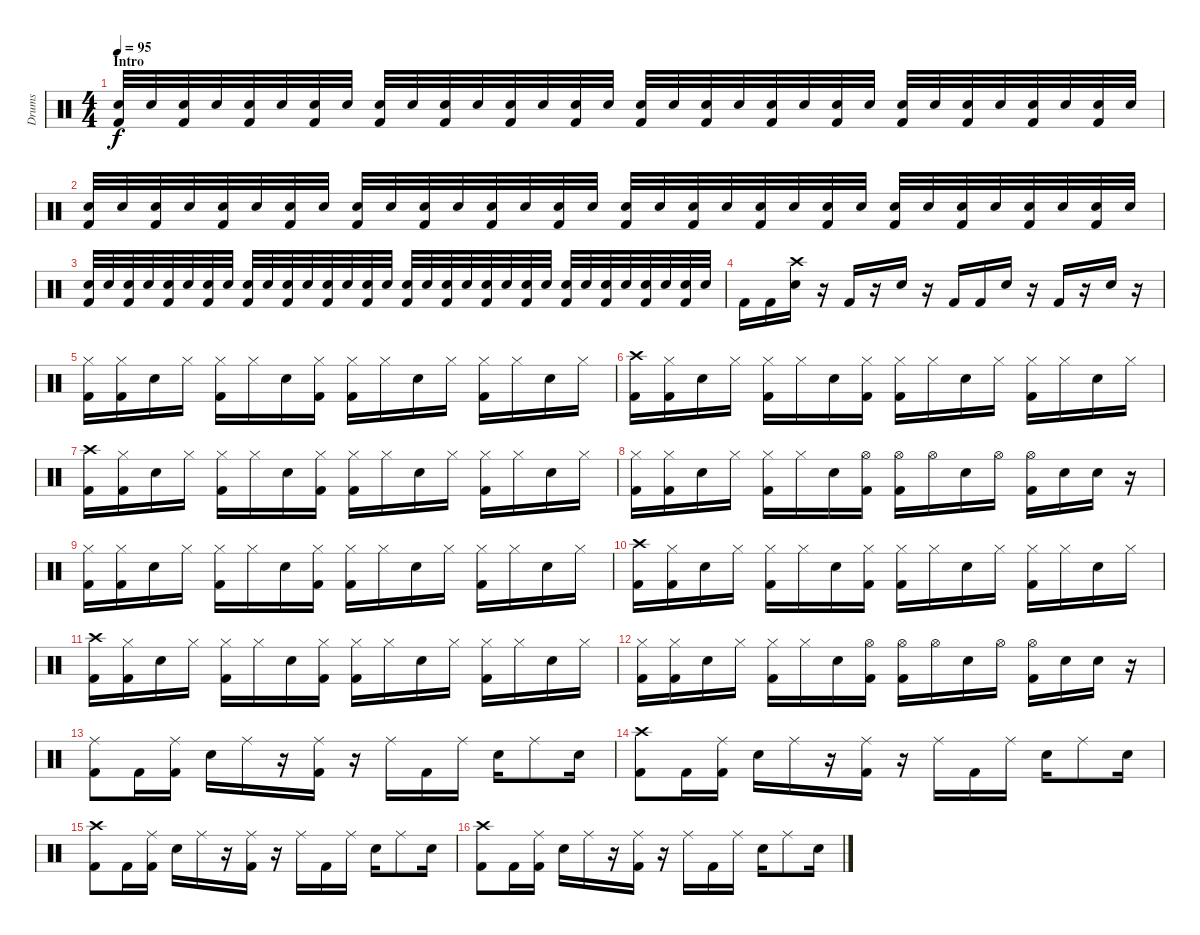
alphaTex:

\track ("Drums" "Drums") {instrument percussion}
\staff {score}
\articulation defaults
\ts (4 4)
\section ("" "Intro")
\tempo 95
\clef neutral
\ks c
("Snare (hit) 2" "Kick (hit) 2").32{dy f} "Snare (hit) 2".32 ("Snare (hit) 2" "Kick (hit) 2").32 "Snare (hit) 2".32 ("Snare (hit) 2" "Kick (hit) 2").32 "Snare (hit) 2".32 ("Snare (hit) 2" "Kick (hit) 2").32 "Snare (hit) 2".32 ("Snare (hit) 2" "Kick (hit) 2").32 "Snare (hit) 2".32 ("Snare (hit) 2" "Kick (hit) 2").32 "Snare (hit) 2".32 ("Snare (hit) 2" "Kick (hit) 2").32 "Snare (hit) 2".32 ("Snare (hit) 2" "Kick (hit) 2").32 "Snare (hit) 2".32 ("Snare (hit) 2" "Kick (hit) 2").32 "Snare (hit) 2".32 ("Snare (hit) 2" "Kick (hit) 2").32 "Snare (hit) 2".32 ("Snare (hit) 2" "Kick (hit) 2").32 "Snare (hit) 2".32 ("Snare (hit) 2" "Kick (hit) 2").32 "Snare (hit) 2".32 ("Snare (hit) 2" "Kick (hit) 2").32 "Snare (hit) 2".32 ("Snare (hit) 2" "Kick (hit) 2").32 "Snare (hit) 2".32 ("Snare (hit) 2" "Kick (hit) 2").32 "Snare (hit) 2".32 ("Snare (hit) 2" "Kick (hit) 2").32 "Snare (hit) 2".32 |
("Snare (hit) 2" "Kick (hit) 2").32 "Snare (hit) 2".32 ("Snare (hit) 2" "Kick (hit) 2").32 "Snare (hit) 2".32 ("Snare (hit) 2" "Kick (hit) 2").32 "Snare (hit) 2".32 ("Snare (hit) 2" "Kick (hit) 2").32 "Snare (hit) 2".32 ("Snare (hit) 2" "Kick (hit) 2").32 "Snare (hit) 2".32 ("Snare (hit) 2" "Kick (hit) 2").32 "Snare (hit) 2".32 ("Snare (hit) 2" "Kick (hit) 2").32 "Snare (hit) 2".32 ("Snare (hit) 2" "Kick (hit) 2").32 "Snare (hit) 2".32 ("Snare (hit) 2" "Kick (hit) 2").32 "Snare (hit) 2".32 ("Snare (hit) 2" "Kick (hit) 2").32 "Snare (hit) 2".32 ("Snare (hit) 2" "Kick (hit) 2").32 "Snare (hit) 2".32 ("Snare (hit) 2" "Kick (hit) 2").32 "Snare (hit) 2".32 ("Snare (hit) 2" "Kick (hit) 2").32 "Snare (hit) 2".32 ("Snare (hit) 2" "Kick (hit) 2").32 "Snare (hit) 2".32 ("Snare (hit) 2" "Kick (hit) 2").32 "Snare (hit) 2".32 ("Snare (hit) 2" "Kick (hit) 2").32 "Snare (hit) 2".32 |
("Snare (hit) 2" "Kick (hit) 2").32 "Snare (hit) 2".32 ("Snare (hit) 2" "Kick (hit) 2").32 "Snare (hit) 2".32 ("Snare (hit) 2" "Kick (hit) 2").32 "Snare (hit) 2".32 ("Snare (hit) 2" "Kick (hit) 2").32 "Snare (hit) 2".32 ("Snare (hit) 2" "Kick (hit) 2").32 "Snare (hit) 2".32 ("Snare (hit) 2" "Kick (hit) 2").32 "Snare (hit) 2".32 ("Snare (hit) 2" "Kick (hit) 2").32 "Snare (hit) 2".32 ("Snare (hit) 2" "Kick (hit) 2").32 "Snare (hit) 2".32 ("Snare (hit) 2" "Kick (hit) 2").32 "Snare (hit) 2".32 ("Snare (hit) 2" "Kick (hit) 2").32 "Snare (hit) 2".32 ("Snare (hit) 2" "Kick (hit) 2").32 "Snare (hit) 2".32 ("Snare (hit) 2" "Kick (hit) 2").32 "Snare (hit) 2".32 ("Snare (hit) 2" "Kick (hit) 2").32 "Snare (hit) 2".32 ("Snare (hit) 2" "Kick (hit) 2").32 "Snare (hit) 2".32 ("Snare (hit) 2" "Kick (hit) 2").32 "Snare (hit) 2".32 ("Snare (hit) 2" "Kick (hit) 2").32 "Snare (hit) 2".32 |
"Kick (hit) 2".16 "Kick (hit) 2".16 ("Crash high (hit)" "Snare (hit) 2").16 r.16 "Kick (hit) 2".16 r.16 "Snare (hit) 2".16 r.16 "Kick (hit) 2".16 "Kick (hit) 2".16 "Snare (hit) 2".16 r.16 "Kick (hit) 2".16 r.16 "Snare (hit) 2".16 r.16 |
("Hi-Hat (closed)" "Kick (hit) 2").16 ("Hi-Hat (closed)" "Kick (hit) 2").16 "Snare (hit) 2".16 "Hi-Hat (closed)".16 ("Hi-Hat (closed)" "Kick (hit) 2").16 "Hi-Hat (closed)".16 "Snare (hit) 2".16 ("Hi-Hat (closed)" "Kick (hit) 2").16 ("Hi-Hat (closed)" "Kick (hit) 2").16 "Hi-Hat (closed)".16 "Snare (hit) 2".16 "Hi-Hat (closed)".16 ("Hi-Hat (closed)" "Kick (hit) 2").16 "Hi-Hat (closed)".16 "Snare (hit) 2".16 "Hi-Hat (closed)".16 |
("Crash high (hit)" "Kick (hit) 2").16 ("Hi-Hat (closed)" "Kick (hit) 2").16 "Snare (hit) 2".16 "Hi-Hat (closed)".16 ("Hi-Hat (closed)" "Kick (hit) 2").16 "Hi-Hat (closed)".16 "Snare (hit) 2".16 ("Hi-Hat (closed)" "Kick (hit) 2").16 ("Hi-Hat (closed)" "Kick (hit) 2").16 "Hi-Hat (closed)".16 "Snare (hit) 2".16 "Hi-Hat (closed)".16 ("Hi-Hat (closed)" "Kick (hit) 2").16 "Hi-Hat (closed)".16 "Snare (hit) 2".16 "Hi-Hat (closed)".16 |
("Crash high (hit)" "Kick (hit) 2").16 ("Hi-Hat (closed)" "Kick (hit) 2").16 "Snare (hit) 2".16 "Hi-Hat (closed)".16 ("Hi-Hat (closed)" "Kick (hit) 2").16 "Hi-Hat (closed)".16 "Snare (hit) 2".16 ("Hi-Hat (closed)" "Kick (hit) 2").16 ("Hi-Hat (closed)" "Kick (hit) 2").16 "Hi-Hat (closed)".16 "Snare (hit) 2".16 "Hi-Hat (closed)".16 ("Hi-Hat (closed)" "Kick (hit) 2").16 "Hi-Hat (closed)".16 "Snare (hit) 2".16 "Hi-Hat (closed)".16 |
("Hi-Hat (closed)" "Kick (hit) 2").16 ("Hi-Hat (closed)" "Kick (hit) 2").16 "Snare (hit) 2".16 "Hi-Hat (closed)".16 ("Hi-Hat (closed)" "Kick (hit) 2").16 "Hi-Hat (closed)".16 "Snare (hit) 2".16 ("Hi-Hat (open)" "Kick (hit) 2").16 ("Hi-Hat (open)" "Kick (hit) 2").16 "Hi-Hat (open)".16 "Snare (hit) 2".16 "Hi-Hat (open)".16 ("Hi-Hat (open)" "Kick (hit) 2").16 "Snare (hit) 2".16 "Snare (hit) 2".16 r.16 |
("Hi-Hat (closed)" "Kick (hit) 2").16 ("Hi-Hat (closed)" "Kick (hit) 2").16 "Snare (hit) 2".16 "Hi-Hat (closed)".16 ("Hi-Hat (closed)" "Kick (hit) 2").16 "Hi-Hat (closed)".16 "Snare (hit) 2".16 ("Hi-Hat (closed)" "Kick (hit) 2").16 ("Hi-Hat (closed)" "Kick (hit) 2").16 "Hi-Hat (closed)".16 "Snare (hit) 2".16 "Hi-Hat (closed)".16 ("Hi-Hat (closed)" "Kick (hit) 2").16 "Hi-Hat (closed)".16 "Snare (hit) 2".16 "Hi-Hat (closed)".16 |
("Crash high (hit)" "Kick (hit) 2").16 ("Hi-Hat (closed)" "Kick (hit) 2").16 "Snare (hit) 2".16 "Hi-Hat (closed)".16 ("Hi-Hat (closed)" "Kick (hit) 2").16 "Hi-Hat (closed)".16 "Snare (hit) 2".16 ("Hi-Hat (closed)" "Kick (hit) 2").16 ("Hi-Hat (closed)" "Kick (hit) 2").16 "Hi-Hat (closed)".16 "Snare (hit) 2".16 "Hi-Hat (closed)".16 ("Hi-Hat (closed)" "Kick (hit) 2").16 "Hi-Hat (closed)".16 "Snare (hit) 2".16 "Hi-Hat (closed)".16 |
("Crash high (hit)" "Kick (hit) 2").16 ("Hi-Hat (closed)" "Kick (hit) 2").16 "Snare (hit) 2".16 "Hi-Hat (closed)".16 ("Hi-Hat (closed)" "Kick (hit) 2").16 "Hi-Hat (closed)".16 "Snare (hit) 2".16 ("Hi-Hat (closed)" "Kick (hit) 2").16 ("Hi-Hat (closed)" "Kick (hit) 2").16 "Hi-Hat (closed)".16 "Snare (hit) 2".16 "Hi-Hat (closed)".16 ("Hi-Hat (closed)" "Kick (hit) 2").16 "Hi-Hat (closed)".16 "Snare (hit) 2".16 "Hi-Hat (closed)".16 |
("Hi-Hat (closed)" "Kick (hit) 2").16 ("Hi-Hat (closed)" "Kick (hit) 2").16 "Snare (hit) 2".16 "Hi-Hat (closed)".16 ("Hi-Hat (closed)" "Kick (hit) 2").16 "Hi-Hat (closed)".16 "Snare (hit) 2".16 ("Hi-Hat (open)" "Kick (hit) 2").16 ("Hi-Hat (open)" "Kick (hit) 2").16 "Hi-Hat (open)".16 "Snare (hit) 2".16 "Hi-Hat (open)".16 ("Hi-Hat (open)" "Kick (hit) 2").16 "Snare (hit) 2".16 "Snare (hit) 2".16 r.16 |
("Ride (middle)" "Kick (hit) 2").8 "Kick (hit) 2".16 ("Ride (middle)" "Kick (hit) 2").16 "Snare (hit) 2".16 "Ride (middle)".16 r.16 ("Ride (middle)" "Kick (hit) 2").16 r.16 "Ride (middle)".16 "Kick (hit) 2".16 "Ride (middle)".16 "Snare (hit) 2".16 "Ride (middle)".8 "Snare (hit) 2".16 |
("Crash high (hit)" "Kick (hit) 2").8 "Kick (hit) 2".16 ("Ride (middle)" "Kick (hit) 2").16 "Snare (hit) 2".16 "Ride (middle)".16 r.16 ("Ride (middle)" "Kick (hit) 2").16 r.16 "Ride (middle)".16 "Kick (hit) 2".16 "Ride (middle)".16 "Snare (hit) 2".16 "Ride (middle)".8 "Snare (hit) 2".16 |
("Crash high (hit)" "Kick (hit) 2").8 "Kick (hit) 2".16 ("Ride (middle)" "Kick (hit) 2").16 "Snare (hit) 2".16 "Ride (middle)".16 r.16 ("Ride (middle)" "Kick (hit) 2").16 r.16 "Ride (middle)".16 "Kick (hit) 2".16 "Ride (middle)".16 "Snare (hit) 2".16 "Ride (middle)".8 "Snare (hit) 2".16 |
("Crash high (hit)" "Kick (hit) 2").8 "Kick (hit) 2".16 ("Ride (middle)" "Kick (hit) 2").16 "Snare (hit) 2".16 "Ride (middle)".16 r.16 ("Ride (middle)" "Kick (hit) 2").16 r.16 "Ride (middle)".16 "Kick (hit) 2".16 "Ride (middle)".16 "Snare (hit) 2".16 "Ride (middle)".8 "Snare (hit) 2".16
